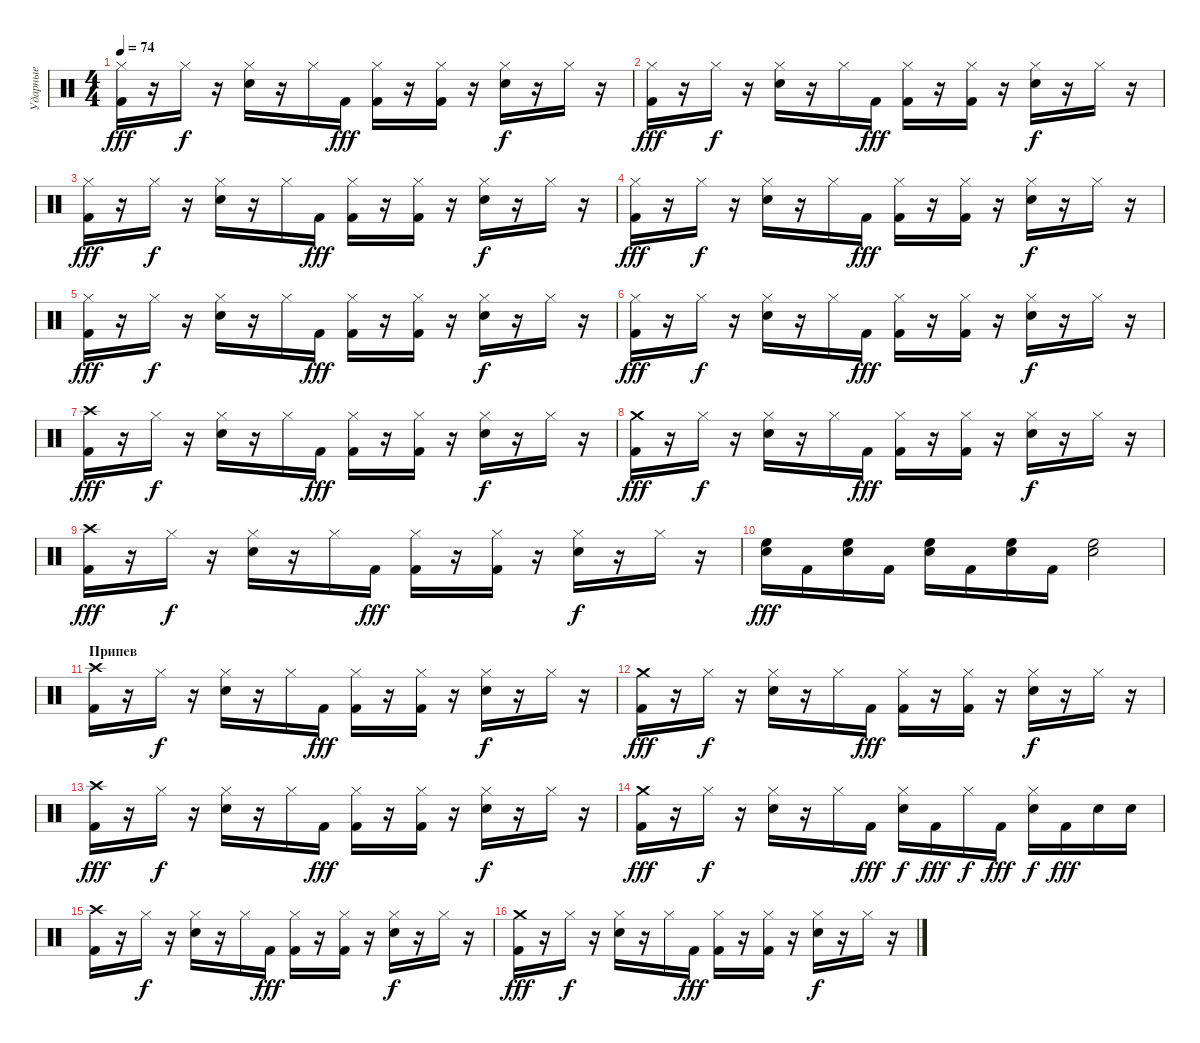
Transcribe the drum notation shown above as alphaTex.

\track ("Ударные" "Ударные") {instrument percussion}
\staff {score}
\articulation defaults
\ts (4 4)
\tempo 74
\clef neutral
\ks c
("Hi-Hat (closed)" "Kick (hit) 2").16{dy fff} r.16 "Hi-Hat (closed)".16{dy f} r.16 ("Hi-Hat (closed)" "Electric Snare (hit)").16 r.16 "Hi-Hat (closed)".16 "Kick (hit) 2".16{dy fff} ("Hi-Hat (closed)" "Kick (hit) 2").16 r.16 ("Hi-Hat (closed)" "Kick (hit) 2").16 r.16 ("Hi-Hat (closed)" "Electric Snare (hit)").16{dy f} r.16 "Hi-Hat (closed)".16 r.16 |
("Hi-Hat (closed)" "Kick (hit) 2").16{dy fff} r.16 "Hi-Hat (closed)".16{dy f} r.16 ("Hi-Hat (closed)" "Electric Snare (hit)").16 r.16 "Hi-Hat (closed)".16 "Kick (hit) 2".16{dy fff} ("Hi-Hat (closed)" "Kick (hit) 2").16 r.16 ("Hi-Hat (closed)" "Kick (hit) 2").16 r.16 ("Hi-Hat (closed)" "Electric Snare (hit)").16{dy f} r.16 "Hi-Hat (closed)".16 r.16 |
("Hi-Hat (closed)" "Kick (hit) 2").16{dy fff} r.16 "Hi-Hat (closed)".16{dy f} r.16 ("Hi-Hat (closed)" "Electric Snare (hit)").16 r.16 "Hi-Hat (closed)".16 "Kick (hit) 2".16{dy fff} ("Hi-Hat (closed)" "Kick (hit) 2").16 r.16 ("Hi-Hat (closed)" "Kick (hit) 2").16 r.16 ("Hi-Hat (closed)" "Electric Snare (hit)").16{dy f} r.16 "Hi-Hat (closed)".16 r.16 |
("Hi-Hat (closed)" "Kick (hit) 2").16{dy fff} r.16 "Hi-Hat (closed)".16{dy f} r.16 ("Hi-Hat (closed)" "Electric Snare (hit)").16 r.16 "Hi-Hat (closed)".16 "Kick (hit) 2".16{dy fff} ("Hi-Hat (closed)" "Kick (hit) 2").16 r.16 ("Hi-Hat (closed)" "Kick (hit) 2").16 r.16 ("Hi-Hat (closed)" "Electric Snare (hit)").16{dy f} r.16 "Hi-Hat (closed)".16 r.16 |
("Hi-Hat (closed)" "Kick (hit) 2").16{dy fff} r.16 "Hi-Hat (closed)".16{dy f} r.16 ("Hi-Hat (closed)" "Electric Snare (hit)").16 r.16 "Hi-Hat (closed)".16 "Kick (hit) 2".16{dy fff} ("Hi-Hat (closed)" "Kick (hit) 2").16 r.16 ("Hi-Hat (closed)" "Kick (hit) 2").16 r.16 ("Hi-Hat (closed)" "Electric Snare (hit)").16{dy f} r.16 "Hi-Hat (closed)".16 r.16 |
("Hi-Hat (closed)" "Kick (hit) 2").16{dy fff} r.16 "Hi-Hat (closed)".16{dy f} r.16 ("Hi-Hat (closed)" "Electric Snare (hit)").16 r.16 "Hi-Hat (closed)".16 "Kick (hit) 2".16{dy fff} ("Hi-Hat (closed)" "Kick (hit) 2").16 r.16 ("Hi-Hat (closed)" "Kick (hit) 2").16 r.16 ("Hi-Hat (closed)" "Electric Snare (hit)").16{dy f} r.16 "Hi-Hat (closed)".16 r.16 |
("Crash high (hit)" "Kick (hit) 2").16{dy fff} r.16 "Hi-Hat (closed)".16{dy f} r.16 ("Hi-Hat (closed)" "Electric Snare (hit)").16 r.16 "Hi-Hat (closed)".16 "Kick (hit) 2".16{dy fff} ("Hi-Hat (closed)" "Kick (hit) 2").16 r.16 ("Hi-Hat (closed)" "Kick (hit) 2").16 r.16 ("Hi-Hat (closed)" "Electric Snare (hit)").16{dy f} r.16 "Hi-Hat (closed)".16 r.16 |
("Crash medium (hit)" "Kick (hit) 2").16{dy fff} r.16 "Hi-Hat (closed)".16{dy f} r.16 ("Hi-Hat (closed)" "Electric Snare (hit)").16 r.16 "Hi-Hat (closed)".16 "Kick (hit) 2".16{dy fff} ("Hi-Hat (closed)" "Kick (hit) 2").16 r.16 ("Hi-Hat (closed)" "Kick (hit) 2").16 r.16 ("Hi-Hat (closed)" "Electric Snare (hit)").16{dy f} r.16 "Hi-Hat (closed)".16 r.16 |
("Crash high (hit)" "Kick (hit) 2").16{dy fff} r.16 "Hi-Hat (closed)".16{dy f} r.16 ("Hi-Hat (closed)" "Electric Snare (hit)").16 r.16 "Hi-Hat (closed)".16 "Kick (hit) 2".16{dy fff} ("Hi-Hat (closed)" "Kick (hit) 2").16 r.16 ("Hi-Hat (closed)" "Kick (hit) 2").16 r.16 ("Hi-Hat (closed)" "Electric Snare (hit)").16{dy f} r.16 "Hi-Hat (closed)".16 r.16 |
("High Floor Tom (hit)" "Electric Snare (hit)").16{dy fff} "Kick (hit) 2".16 ("High Floor Tom (hit)" "Electric Snare (hit)").16 "Kick (hit) 2".16 ("High Floor Tom (hit)" "Electric Snare (hit)").16 "Kick (hit) 2".16 ("High Floor Tom (hit)" "Electric Snare (hit)").16 "Kick (hit) 2".16 ("High Floor Tom (hit)" "Electric Snare (hit)").2 |
\section ("" "Припев")
("Crash high (hit)" "Kick (hit) 2").16 r.16 "Hi-Hat (closed)".16{dy f} r.16 ("Hi-Hat (closed)" "Electric Snare (hit)").16 r.16 "Hi-Hat (closed)".16 "Kick (hit) 2".16{dy fff} ("Hi-Hat (closed)" "Kick (hit) 2").16 r.16 ("Hi-Hat (closed)" "Kick (hit) 2").16 r.16 ("Hi-Hat (closed)" "Electric Snare (hit)").16{dy f} r.16 "Hi-Hat (closed)".16 r.16 |
("Crash medium (hit)" "Kick (hit) 2").16{dy fff} r.16 "Hi-Hat (closed)".16{dy f} r.16 ("Hi-Hat (closed)" "Electric Snare (hit)").16 r.16 "Hi-Hat (closed)".16 "Kick (hit) 2".16{dy fff} ("Hi-Hat (closed)" "Kick (hit) 2").16 r.16 ("Hi-Hat (closed)" "Kick (hit) 2").16 r.16 ("Hi-Hat (closed)" "Electric Snare (hit)").16{dy f} r.16 "Hi-Hat (closed)".16 r.16 |
("Crash high (hit)" "Kick (hit) 2").16{dy fff} r.16 "Hi-Hat (closed)".16{dy f} r.16 ("Hi-Hat (closed)" "Electric Snare (hit)").16 r.16 "Hi-Hat (closed)".16 "Kick (hit) 2".16{dy fff} ("Hi-Hat (closed)" "Kick (hit) 2").16 r.16 ("Hi-Hat (closed)" "Kick (hit) 2").16 r.16 ("Hi-Hat (closed)" "Electric Snare (hit)").16{dy f} r.16 "Hi-Hat (closed)".16 r.16 |
("Crash medium (hit)" "Kick (hit) 2").16{dy fff} r.16 "Hi-Hat (closed)".16{dy f} r.16 ("Hi-Hat (closed)" "Electric Snare (hit)").16 r.16 "Hi-Hat (closed)".16 "Kick (hit) 2".16{dy fff} ("Hi-Hat (closed)" "Electric Snare (hit)").16{dy f} "Kick (hit) 2".16{dy fff} "Hi-Hat (closed)".16{dy f} "Kick (hit) 2".16{dy fff} ("Hi-Hat (closed)" "Electric Snare (hit)").16{dy f} "Kick (hit) 2".16{dy fff} "Electric Snare (hit)".16 "Electric Snare (hit)".16 |
("Crash high (hit)" "Kick (hit) 2").16 r.16 "Hi-Hat (closed)".16{dy f} r.16 ("Hi-Hat (closed)" "Electric Snare (hit)").16 r.16 "Hi-Hat (closed)".16 "Kick (hit) 2".16{dy fff} ("Hi-Hat (closed)" "Kick (hit) 2").16 r.16 ("Hi-Hat (closed)" "Kick (hit) 2").16 r.16 ("Hi-Hat (closed)" "Electric Snare (hit)").16{dy f} r.16 "Hi-Hat (closed)".16 r.16 |
("Crash medium (hit)" "Kick (hit) 2").16{dy fff} r.16 "Hi-Hat (closed)".16{dy f} r.16 ("Hi-Hat (closed)" "Electric Snare (hit)").16 r.16 "Hi-Hat (closed)".16 "Kick (hit) 2".16{dy fff} ("Hi-Hat (closed)" "Kick (hit) 2").16 r.16 ("Hi-Hat (closed)" "Kick (hit) 2").16 r.16 ("Hi-Hat (closed)" "Electric Snare (hit)").16{dy f} r.16 "Hi-Hat (closed)".16 r.16
